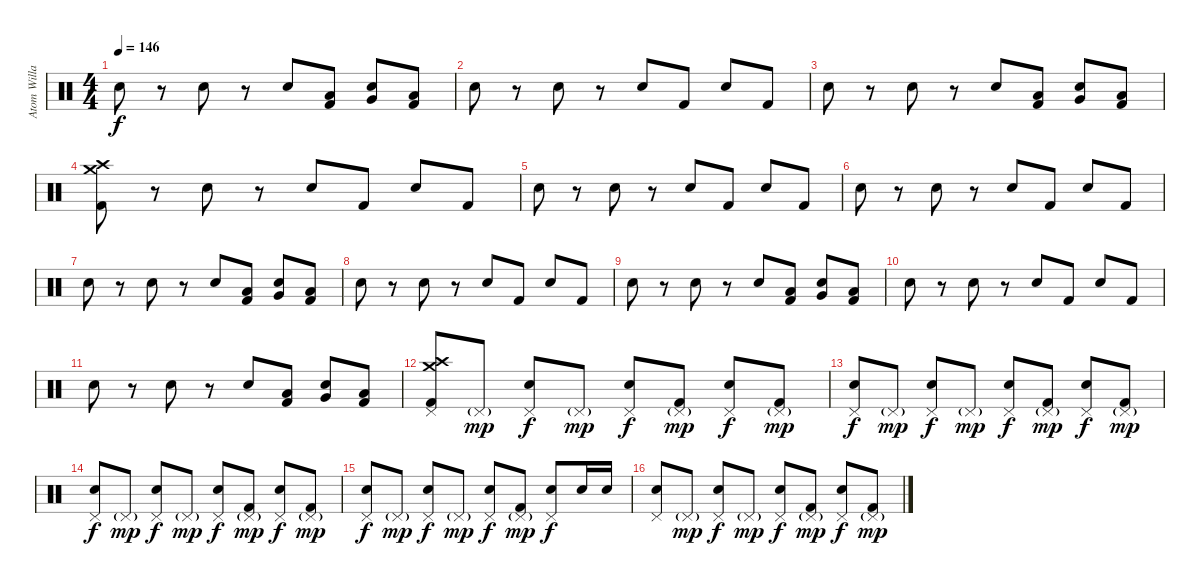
\track ("Atom Willard" "Atom Willa") {instrument percussion}
\staff {score}
\articulation defaults
\ts (4 4)
\tempo 146
\clef neutral
\ks c "Electric Snare (hit)".8{dy f}
r.8 "Electric Snare (hit)".8 r.8 "Electric Snare (hit)".8 ("Low Tom (hit)" "Kick (hit) 2").8 ("Electric Snare (hit)" "Very Low Tom (hit)").8 ("Low Floor Tom (hit)" "Kick (hit) 2").8 |
"Electric Snare (hit)".8 r.8 "Electric Snare (hit)".8 r.8 "Electric Snare (hit)".8 "Kick (hit) 2".8 "Electric Snare (hit)".8 "Kick (hit) 2".8 |
"Electric Snare (hit)".8 r.8 "Electric Snare (hit)".8 r.8 "Electric Snare (hit)".8 ("Low Tom (hit)" "Kick (hit) 2").8 ("Electric Snare (hit)" "Very Low Tom (hit)").8 ("Low Tom (hit)" "Kick (hit) 2").8 |
("Crash high (hit)" "Crash medium (hit)" "Kick (hit) 2").8 r.8 "Electric Snare (hit)".8 r.8 "Electric Snare (hit)".8 "Kick (hit) 2".8 "Electric Snare (hit)".8 "Kick (hit) 2".8 |
"Electric Snare (hit)".8 r.8 "Electric Snare (hit)".8 r.8 "Electric Snare (hit)".8 "Kick (hit) 2".8 "Electric Snare (hit)".8 "Kick (hit) 2".8 |
"Electric Snare (hit)".8 r.8 "Electric Snare (hit)".8 r.8 "Electric Snare (hit)".8 "Kick (hit) 2".8 "Electric Snare (hit)".8 "Kick (hit) 2".8 |
"Electric Snare (hit)".8 r.8 "Electric Snare (hit)".8 r.8 "Electric Snare (hit)".8 ("Low Tom (hit)" "Kick (hit) 2").8 ("Electric Snare (hit)" "Very Low Tom (hit)").8 ("Low Floor Tom (hit)" "Kick (hit) 2").8 |
"Electric Snare (hit)".8 r.8 "Electric Snare (hit)".8 r.8 "Electric Snare (hit)".8 "Kick (hit) 2".8 "Electric Snare (hit)".8 "Kick (hit) 2".8 |
"Electric Snare (hit)".8 r.8 "Electric Snare (hit)".8 r.8 "Electric Snare (hit)".8 ("Low Tom (hit)" "Kick (hit) 2").8 ("Electric Snare (hit)" "Very Low Tom (hit)").8 ("Low Floor Tom (hit)" "Kick (hit) 2").8 |
"Electric Snare (hit)".8 r.8 "Electric Snare (hit)".8 r.8 "Electric Snare (hit)".8 "Kick (hit) 2".8 "Electric Snare (hit)".8 "Kick (hit) 2".8 |
"Electric Snare (hit)".8 r.8 "Electric Snare (hit)".8 r.8 "Electric Snare (hit)".8 ("Low Tom (hit)" "Kick (hit) 2").8 ("Electric Snare (hit)" "Very Low Tom (hit)").8 ("Low Tom (hit)" "Kick (hit) 2").8 |
("Crash high (hit)" "Crash medium (hit)" "Pedal Hi-Hat (hit)" "Kick (hit) 2").8 "Pedal Hi-Hat (hit)"{g}.8{dy mp} ("Pedal Hi-Hat (hit)" "Electric Snare (hit)").8{dy f} "Pedal Hi-Hat (hit)"{g}.8{dy mp} ("Pedal Hi-Hat (hit)" "Electric Snare (hit)").8{dy f} ("Pedal Hi-Hat (hit)"{g} "Kick (hit) 2").8{dy mp} ("Pedal Hi-Hat (hit)" "Electric Snare (hit)").8{dy f} ("Pedal Hi-Hat (hit)"{g} "Kick (hit) 2").8{dy mp} |
("Pedal Hi-Hat (hit)" "Electric Snare (hit)").8{dy f} "Pedal Hi-Hat (hit)"{g}.8{dy mp} ("Pedal Hi-Hat (hit)" "Electric Snare (hit)").8{dy f} "Pedal Hi-Hat (hit)"{g}.8{dy mp} ("Pedal Hi-Hat (hit)" "Electric Snare (hit)").8{dy f} ("Pedal Hi-Hat (hit)"{g} "Kick (hit) 2").8{dy mp} ("Pedal Hi-Hat (hit)" "Electric Snare (hit)").8{dy f} ("Pedal Hi-Hat (hit)"{g} "Kick (hit) 2").8{dy mp} |
("Pedal Hi-Hat (hit)" "Electric Snare (hit)").8{dy f} "Pedal Hi-Hat (hit)"{g}.8{dy mp} ("Pedal Hi-Hat (hit)" "Electric Snare (hit)").8{dy f} "Pedal Hi-Hat (hit)"{g}.8{dy mp} ("Pedal Hi-Hat (hit)" "Electric Snare (hit)").8{dy f} ("Pedal Hi-Hat (hit)"{g} "Kick (hit) 2").8{dy mp} ("Pedal Hi-Hat (hit)" "Electric Snare (hit)").8{dy f} ("Pedal Hi-Hat (hit)"{g} "Kick (hit) 2").8{dy mp} |
("Pedal Hi-Hat (hit)" "Electric Snare (hit)").8{dy f} "Pedal Hi-Hat (hit)"{g}.8{dy mp} ("Pedal Hi-Hat (hit)" "Electric Snare (hit)").8{dy f} "Pedal Hi-Hat (hit)"{g}.8{dy mp} ("Pedal Hi-Hat (hit)" "Electric Snare (hit)").8{dy f} ("Pedal Hi-Hat (hit)"{g} "Kick (hit) 2").8{dy mp} ("Pedal Hi-Hat (hit)" "Electric Snare (hit)").8{dy f} "Electric Snare (hit)".16 "Electric Snare (hit)".16 |
("Pedal Hi-Hat (hit)" "Electric Snare (hit)").8 "Pedal Hi-Hat (hit)"{g}.8{dy mp} ("Pedal Hi-Hat (hit)" "Electric Snare (hit)").8{dy f} "Pedal Hi-Hat (hit)"{g}.8{dy mp} ("Pedal Hi-Hat (hit)" "Electric Snare (hit)").8{dy f} ("Pedal Hi-Hat (hit)"{g} "Kick (hit) 2").8{dy mp} ("Pedal Hi-Hat (hit)" "Electric Snare (hit)").8{dy f} ("Pedal Hi-Hat (hit)"{g} "Kick (hit) 2").8{dy mp}
